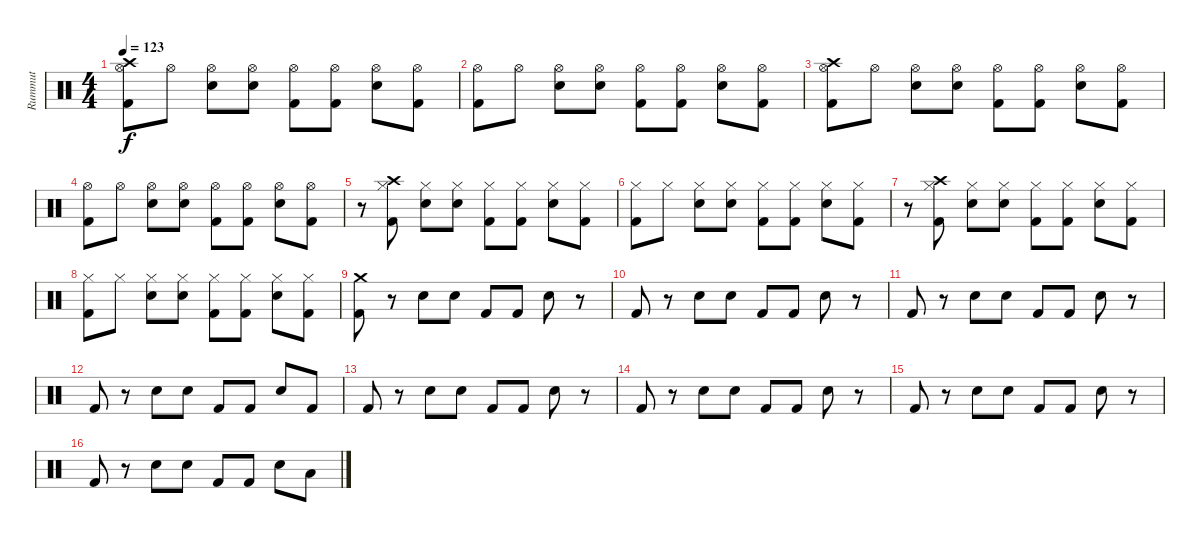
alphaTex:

\track ("Rummut" "Rummut") {instrument percussion}
\staff {score}
\articulation defaults
\ts (4 4)
\tempo 123
\clef neutral
\ks c
("Crash high (hit)" "Hi-Hat (open)" "Kick (hit) 2").8{dy f} "Hi-Hat (open)".8 ("Hi-Hat (open)" "Electric Snare (hit)").8 ("Hi-Hat (open)" "Electric Snare (hit)").8 ("Hi-Hat (open)" "Kick (hit) 2").8 ("Hi-Hat (open)" "Kick (hit) 2").8 ("Hi-Hat (open)" "Electric Snare (hit)").8 ("Hi-Hat (open)" "Kick (hit) 2").8 |
("Hi-Hat (open)" "Kick (hit) 2").8 "Hi-Hat (open)".8 ("Hi-Hat (open)" "Electric Snare (hit)").8 ("Hi-Hat (open)" "Electric Snare (hit)").8 ("Hi-Hat (open)" "Kick (hit) 2").8 ("Hi-Hat (open)" "Kick (hit) 2").8 ("Hi-Hat (open)" "Electric Snare (hit)").8 ("Hi-Hat (open)" "Kick (hit) 2").8 |
("Crash high (hit)" "Hi-Hat (open)" "Kick (hit) 2").8 "Hi-Hat (open)".8 ("Hi-Hat (open)" "Electric Snare (hit)").8 ("Hi-Hat (open)" "Electric Snare (hit)").8 ("Hi-Hat (open)" "Kick (hit) 2").8 ("Hi-Hat (open)" "Kick (hit) 2").8 ("Hi-Hat (open)" "Electric Snare (hit)").8 ("Hi-Hat (open)" "Kick (hit) 2").8 |
("Hi-Hat (open)" "Kick (hit) 2").8 "Hi-Hat (open)".8 ("Hi-Hat (open)" "Electric Snare (hit)").8 ("Hi-Hat (open)" "Electric Snare (hit)").8 ("Hi-Hat (open)" "Kick (hit) 2").8 ("Hi-Hat (open)" "Kick (hit) 2").8 ("Hi-Hat (open)" "Electric Snare (hit)").8 ("Hi-Hat (open)" "Kick (hit) 2").8 |
r.8 ("Crash high (hit)" "Hi-Hat (closed)" "Kick (hit) 2").8 ("Hi-Hat (closed)" "Electric Snare (hit)").8 ("Hi-Hat (closed)" "Electric Snare (hit)").8 ("Hi-Hat (closed)" "Kick (hit) 2").8 ("Hi-Hat (closed)" "Kick (hit) 2").8 ("Hi-Hat (closed)" "Electric Snare (hit)").8 ("Hi-Hat (closed)" "Kick (hit) 2").8 |
("Hi-Hat (closed)" "Kick (hit) 2").8 "Hi-Hat (closed)".8 ("Hi-Hat (closed)" "Electric Snare (hit)").8 ("Hi-Hat (closed)" "Electric Snare (hit)").8 ("Hi-Hat (closed)" "Kick (hit) 2").8 ("Hi-Hat (closed)" "Kick (hit) 2").8 ("Hi-Hat (closed)" "Electric Snare (hit)").8 ("Hi-Hat (closed)" "Kick (hit) 2").8 |
r.8 ("Crash high (hit)" "Hi-Hat (closed)" "Kick (hit) 2").8 ("Hi-Hat (closed)" "Electric Snare (hit)").8 ("Hi-Hat (closed)" "Electric Snare (hit)").8 ("Hi-Hat (closed)" "Kick (hit) 2").8 ("Hi-Hat (closed)" "Kick (hit) 2").8 ("Hi-Hat (closed)" "Electric Snare (hit)").8 ("Hi-Hat (closed)" "Kick (hit) 2").8 |
("Hi-Hat (closed)" "Kick (hit) 2").8 "Hi-Hat (closed)".8 ("Hi-Hat (closed)" "Electric Snare (hit)").8 ("Hi-Hat (closed)" "Electric Snare (hit)").8 ("Hi-Hat (closed)" "Kick (hit) 2").8 ("Hi-Hat (closed)" "Kick (hit) 2").8 ("Hi-Hat (closed)" "Electric Snare (hit)").8 ("Hi-Hat (closed)" "Kick (hit) 2").8 |
("Crash medium (hit)" "Kick (hit) 2").8 r.8 "Electric Snare (hit)".8 "Electric Snare (hit)".8 "Kick (hit) 2".8 "Kick (hit) 2".8 "Electric Snare (hit)".8 r.8 |
"Kick (hit) 2".8 r.8 "Electric Snare (hit)".8 "Electric Snare (hit)".8 "Kick (hit) 2".8 "Kick (hit) 2".8 "Electric Snare (hit)".8 r.8 |
"Kick (hit) 2".8 r.8 "Electric Snare (hit)".8 "Electric Snare (hit)".8 "Kick (hit) 2".8 "Kick (hit) 2".8 "Electric Snare (hit)".8 r.8 |
"Kick (hit) 2".8 r.8 "Electric Snare (hit)".8 "Electric Snare (hit)".8 "Kick (hit) 2".8 "Kick (hit) 2".8 "Electric Snare (hit)".8 "Kick (hit) 2".8 |
"Kick (hit) 2".8 r.8 "Electric Snare (hit)".8 "Electric Snare (hit)".8 "Kick (hit) 2".8 "Kick (hit) 2".8 "Electric Snare (hit)".8 r.8 |
"Kick (hit) 2".8 r.8 "Electric Snare (hit)".8 "Electric Snare (hit)".8 "Kick (hit) 2".8 "Kick (hit) 2".8 "Electric Snare (hit)".8 r.8 |
"Kick (hit) 2".8 r.8 "Electric Snare (hit)".8 "Electric Snare (hit)".8 "Kick (hit) 2".8 "Kick (hit) 2".8 "Electric Snare (hit)".8 r.8 |
"Kick (hit) 2".8 r.8 "Electric Snare (hit)".8 "Electric Snare (hit)".8 "Kick (hit) 2".8 "Kick (hit) 2".8 "Electric Snare (hit)".8 "Low Tom (hit)".8
